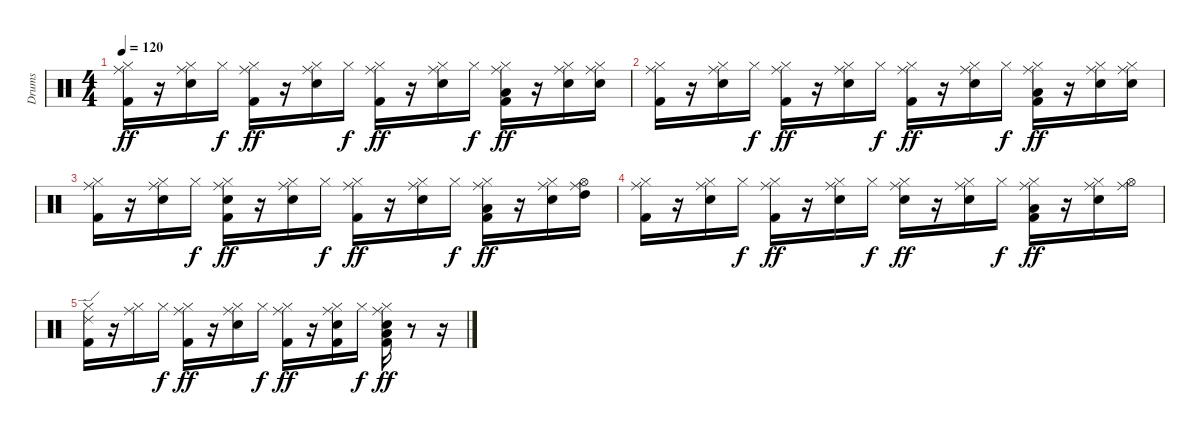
\track ("Drums" "Drums") {instrument percussion}
\staff {score}
\articulation defaults
\ts (4 4)
\tempo 120
\clef neutral
\ks c
("Hi-Hat (closed)" "Ride (middle)" "Kick (hit) 2").16{dy ff} r.16 ("Hi-Hat (closed)" "Snare (hit) 2" "Ride (middle)").16 "Hi-Hat (closed)".16{dy f} ("Hi-Hat (closed)" "Ride (middle)" "Kick (hit) 2").16{dy ff} r.16 ("Hi-Hat (closed)" "Snare (hit) 2" "Ride (middle)").16 "Hi-Hat (closed)".16{dy f} ("Hi-Hat (closed)" "Ride (middle)" "Kick (hit) 2").16{dy ff} r.16 ("Hi-Hat (closed)" "Snare (hit) 2" "Ride (middle)").16 "Hi-Hat (closed)".16{dy f} ("Hi-Hat (closed)" "Ride (middle)" "Low Floor Tom (hit)" "Kick (hit) 2").16{dy ff} r.16 ("Hi-Hat (closed)" "Snare (hit) 2" "Ride (middle)").16 ("Hi-Hat (closed)" "Snare (hit) 2" "Ride (middle)").16 |
("Hi-Hat (closed)" "Ride (middle)" "Kick (hit) 2").16 r.16 ("Hi-Hat (closed)" "Snare (hit) 2" "Ride (middle)").16 "Hi-Hat (closed)".16{dy f} ("Hi-Hat (closed)" "Ride (middle)" "Kick (hit) 2").16{dy ff} r.16 ("Hi-Hat (closed)" "Snare (hit) 2" "Ride (middle)").16 "Hi-Hat (closed)".16{dy f} ("Hi-Hat (closed)" "Ride (middle)" "Kick (hit) 2").16{dy ff} r.16 ("Hi-Hat (closed)" "Snare (hit) 2" "Ride (middle)").16 "Hi-Hat (closed)".16{dy f} ("Hi-Hat (closed)" "Ride (middle)" "Low Floor Tom (hit)" "Kick (hit) 2").16{dy ff} r.16 ("Hi-Hat (closed)" "Snare (hit) 2" "Ride (middle)").16 ("Hi-Hat (closed)" "Snare (hit) 2" "Ride (middle)").16 |
("Hi-Hat (closed)" "Ride (middle)" "Kick (hit) 2").16 r.16 ("Hi-Hat (closed)" "Snare (hit) 2" "Ride (middle)").16 "Hi-Hat (closed)".16{dy f} ("Hi-Hat (closed)" "Snare (hit) 2" "Ride (middle)" "Kick (hit) 2").16{dy ff} r.16 ("Hi-Hat (closed)" "Snare (hit) 2" "Ride (middle)").16 "Hi-Hat (closed)".16{dy f} ("Hi-Hat (closed)" "Ride (middle)" "Kick (hit) 2").16{dy ff} r.16 ("Hi-Hat (closed)" "Snare (hit) 2" "Ride (middle)").16 "Hi-Hat (closed)".16{dy f} ("Hi-Hat (closed)" "Ride (middle)" "Low Floor Tom (hit)" "Kick (hit) 2").16{dy ff} r.16 ("Hi-Hat (closed)" "Snare (hit) 2" "Ride (middle)").16 ("Hi-Hat (open)" "Ride (middle)" "High Tom (hit)").16 |
("Hi-Hat (closed)" "Ride (middle)" "Kick (hit) 2").16 r.16 ("Hi-Hat (closed)" "Snare (hit) 2" "Ride (middle)").16 "Hi-Hat (closed)".16{dy f} ("Hi-Hat (closed)" "Ride (middle)" "Kick (hit) 2").16{dy ff} r.16 ("Hi-Hat (closed)" "Snare (hit) 2" "Ride (middle)").16 "Hi-Hat (closed)".16{dy f} ("Hi-Hat (closed)" "Snare (hit) 2" "Ride (middle)").16{dy ff} r.16 ("Hi-Hat (closed)" "Snare (hit) 2" "Ride (middle)").16 "Hi-Hat (closed)".16{dy f} ("Hi-Hat (closed)" "Ride (middle)" "Low Floor Tom (hit)" "Kick (hit) 2").16{dy ff} r.16 ("Hi-Hat (closed)" "Snare (hit) 2" "Ride (middle)").16 ("Hi-Hat (open)" "Ride (middle)").16 |
("Hi-Hat (closed)" "Ride (edge) 2" "Kick (hit) 2").16 r.16 ("Hi-Hat (closed)" "Ride (middle)").16 "Hi-Hat (closed)".16{dy f} ("Hi-Hat (closed)" "Ride (middle)" "Kick (hit) 2").16{dy ff} r.16 ("Hi-Hat (closed)" "Snare (hit) 2" "Ride (middle)").16 "Hi-Hat (closed)".16{dy f} ("Hi-Hat (closed)" "Ride (middle)" "Kick (hit) 2").16{dy ff} r.16 ("Hi-Hat (closed)" "Snare (hit) 2" "Ride (middle)" "Kick (hit) 2").16 "Hi-Hat (closed)".16{dy f} ("Hi-Hat (closed)" "Snare (hit) 2" "Ride (middle)" "Low Floor Tom (hit)" "Kick (hit) 2").16{dy ff} r.8 r.16
